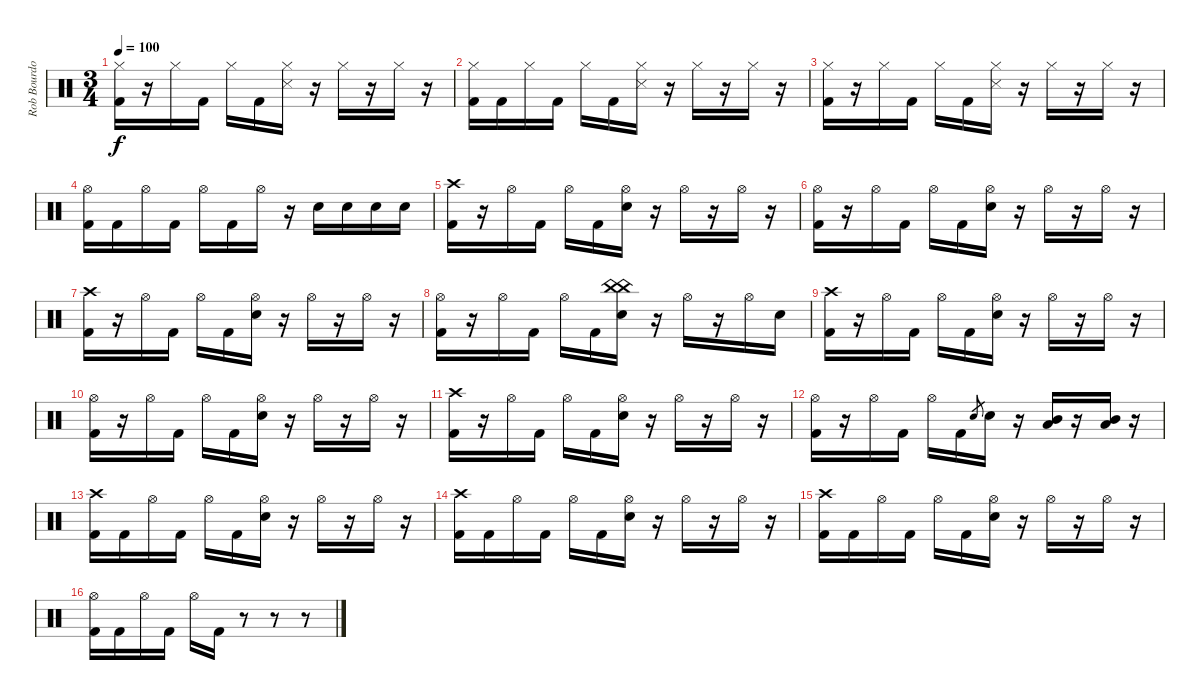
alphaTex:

\track ("Rob Bourdon (Drums)" "Rob Bourdo") {instrument percussion}
\staff {score}
\articulation defaults
\ts (3 4)
\tempo 100
\clef neutral
\ks c
("Hi-Hat (closed)" "Kick (hit) 2").16{dy f} r.16 "Hi-Hat (closed)".16 "Kick (hit) 2".16 "Hi-Hat (closed)".16 "Kick (hit) 2".16 ("Hi-Hat (closed)" "Snare (side stick) 3").16 r.16 "Hi-Hat (closed)".16 r.16 "Hi-Hat (closed)".16 r.16 |
("Hi-Hat (closed)" "Kick (hit) 2").16 "Kick (hit) 2".16 "Hi-Hat (closed)".16 "Kick (hit) 2".16 "Hi-Hat (closed)".16 "Kick (hit) 2".16 ("Hi-Hat (closed)" "Snare (side stick) 3").16 r.16 "Hi-Hat (closed)".16 r.16 "Hi-Hat (closed)".16 r.16 |
("Hi-Hat (closed)" "Kick (hit) 2").16 r.16 "Hi-Hat (closed)".16 "Kick (hit) 2".16 "Hi-Hat (closed)".16 "Kick (hit) 2".16 ("Hi-Hat (closed)" "Snare (side stick) 3").16 r.16 "Hi-Hat (closed)".16 r.16 "Hi-Hat (closed)".16 r.16 |
("Hi-Hat (open)" "Kick (hit) 2").16 "Kick (hit) 2".16 "Hi-Hat (open)".16 "Kick (hit) 2".16 "Hi-Hat (open)".16 "Kick (hit) 2".16 "Hi-Hat (open)".16 r.16 "Electric Snare (hit)".16 "Electric Snare (hit)".16 "Electric Snare (hit)".16 "Electric Snare (hit)".16 |
("Crash high (hit)" "Kick (hit) 2").16 r.16 "Hi-Hat (open)".16 "Kick (hit) 2".16 "Hi-Hat (open)".16 "Kick (hit) 2".16 ("Hi-Hat (open)" "Electric Snare (hit)").16 r.16 "Hi-Hat (open)".16 r.16 "Hi-Hat (open)".16 r.16 |
("Hi-Hat (open)" "Kick (hit) 2").16 r.16 "Hi-Hat (open)".16 "Kick (hit) 2".16 "Hi-Hat (open)".16 "Kick (hit) 2".16 ("Hi-Hat (open)" "Electric Snare (hit)").16 r.16 "Hi-Hat (open)".16 r.16 "Hi-Hat (open)".16 r.16 |
("Crash high (hit)" "Kick (hit) 2").16 r.16 "Hi-Hat (open)".16 "Kick (hit) 2".16 "Hi-Hat (open)".16 "Kick (hit) 2".16 ("Hi-Hat (open)" "Electric Snare (hit)").16 r.16 "Hi-Hat (open)".16 r.16 "Hi-Hat (open)".16 r.16 |
("Hi-Hat (open)" "Kick (hit) 2").16 r.16 "Hi-Hat (open)".16 "Kick (hit) 2".16 "Hi-Hat (open)".16 "Kick (hit) 2".16 ("China (hit)" "China (hit)" "Electric Snare (hit)").16 r.16 "Hi-Hat (open)".16 r.16 "Hi-Hat (open)".16 "Electric Snare (hit)".16 |
("Crash high (hit)" "Kick (hit) 2").16 r.16 "Hi-Hat (open)".16 "Kick (hit) 2".16 "Hi-Hat (open)".16 "Kick (hit) 2".16 ("Hi-Hat (open)" "Electric Snare (hit)").16 r.16 "Hi-Hat (open)".16 r.16 "Hi-Hat (open)".16 r.16 |
("Hi-Hat (open)" "Kick (hit) 2").16 r.16 "Hi-Hat (open)".16 "Kick (hit) 2".16 "Hi-Hat (open)".16 "Kick (hit) 2".16 ("Hi-Hat (open)" "Electric Snare (hit)").16 r.16 "Hi-Hat (open)".16 r.16 "Hi-Hat (open)".16 r.16 |
("Crash high (hit)" "Kick (hit) 2").16 r.16 "Hi-Hat (open)".16 "Kick (hit) 2".16 "Hi-Hat (open)".16 "Kick (hit) 2".16 ("Hi-Hat (open)" "Electric Snare (hit)").16 r.16 "Hi-Hat (open)".16 r.16 "Hi-Hat (open)".16 r.16 |
("Hi-Hat (open)" "Kick (hit) 2").16 r.16 "Hi-Hat (open)".16 "Kick (hit) 2".16 "Hi-Hat (open)".16 "Kick (hit) 2".16 "Electric Snare (hit)".8{gr} "Electric Snare (hit)".16 r.16 ("Mid Tom (hit)" "Low Tom (hit)").16 r.16 ("Mid Tom (hit)" "Low Tom (hit)").16 r.16 |
("Crash high (hit)" "Kick (hit) 2").16 "Kick (hit) 2".16 "Hi-Hat (open)".16 "Kick (hit) 2".16 "Hi-Hat (open)".16 "Kick (hit) 2".16 ("Hi-Hat (open)" "Electric Snare (hit)").16 r.16 "Hi-Hat (open)".16 r.16 "Hi-Hat (open)".16 r.16 |
("Crash high (hit)" "Kick (hit) 2").16 "Kick (hit) 2".16 "Hi-Hat (open)".16 "Kick (hit) 2".16 "Hi-Hat (open)".16 "Kick (hit) 2".16 ("Hi-Hat (open)" "Electric Snare (hit)").16 r.16 "Hi-Hat (open)".16 r.16 "Hi-Hat (open)".16 r.16 |
("Crash high (hit)" "Kick (hit) 2").16 "Kick (hit) 2".16 "Hi-Hat (open)".16 "Kick (hit) 2".16 "Hi-Hat (open)".16 "Kick (hit) 2".16 ("Hi-Hat (open)" "Electric Snare (hit)").16 r.16 "Hi-Hat (open)".16 r.16 "Hi-Hat (open)".16 r.16 |
("Hi-Hat (open)" "Kick (hit) 2").16 "Kick (hit) 2".16 "Hi-Hat (open)".16 "Kick (hit) 2".16 "Hi-Hat (open)".16 "Kick (hit) 2".16 r.8 r.8 r.8
